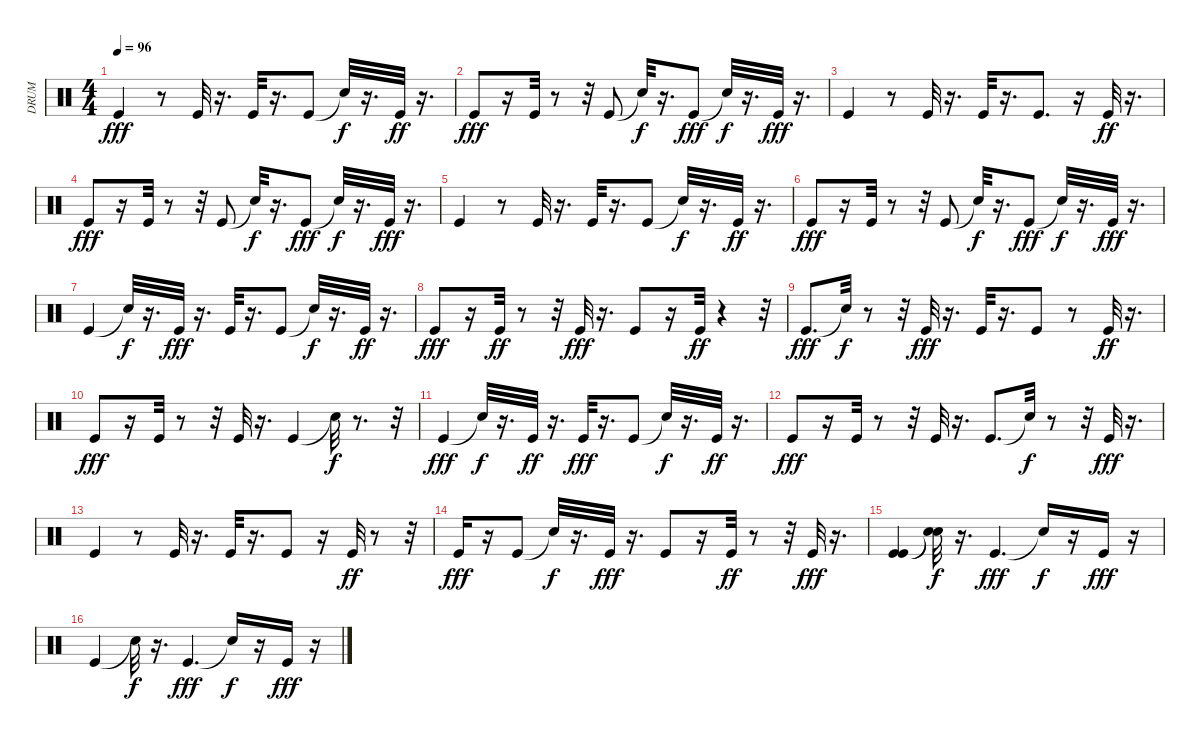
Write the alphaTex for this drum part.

\track ("DRUM" "DRUM") {instrument percussion}
\staff {score}
\articulation defaults
\ts (4 4)
\tempo 96
\clef neutral
\ks c "Kick (hit)".4{dy fff}
r.8 "Kick (hit)".32 r.16{d} "Kick (hit)".32 r.16{d} "Kick (hit)".8 "Snare (hit)"{t}.32{dy f} r.16{d} "Kick (hit)".32{dy ff} r.16{d} |
"Kick (hit)".8{dy fff} r.16 "Kick (hit)".32 r.8 r.32 "Kick (hit)".8 "Snare (hit)"{t}.32{dy f} r.16{d} "Kick (hit)".8{dy fff} "Snare (hit)"{t}.32{dy f} r.16{d} "Kick (hit)".32{dy fff} r.16{d} |
"Kick (hit)".4 r.8 "Kick (hit)".32 r.16{d} "Kick (hit)".32 r.16{d} "Kick (hit)".8{d} r.16 "Kick (hit)".32{dy ff} r.16{d} |
"Kick (hit)".8{dy fff} r.16 "Kick (hit)".32 r.8 r.32 "Kick (hit)".8 "Snare (hit)"{t}.32{dy f} r.16{d} "Kick (hit)".8{dy fff} "Snare (hit)"{t}.32{dy f} r.16{d} "Kick (hit)".32{dy fff} r.16{d} |
"Kick (hit)".4 r.8 "Kick (hit)".32 r.16{d} "Kick (hit)".32 r.16{d} "Kick (hit)".8 "Snare (hit)"{t}.32{dy f} r.16{d} "Kick (hit)".32{dy ff} r.16{d} |
"Kick (hit)".8{dy fff} r.16 "Kick (hit)".32 r.8 r.32 "Kick (hit)".8 "Snare (hit)"{t}.32{dy f} r.16{d} "Kick (hit)".8{dy fff} "Snare (hit)"{t}.32{dy f} r.16{d} "Kick (hit)".32{dy fff} r.16{d} |
"Kick (hit)".4 "Snare (hit)"{t}.32{dy f} r.16{d} "Kick (hit)".32{dy fff} r.16{d} "Kick (hit)".32 r.16{d} "Kick (hit)".8 "Snare (hit)"{t}.32{dy f} r.16{d} "Kick (hit)".32{dy ff} r.16{d} |
"Kick (hit)".8{dy fff} r.16 "Kick (hit)".32{dy ff} r.8 r.32 "Kick (hit)".32{dy fff} r.16{d} "Kick (hit)".8 r.16 "Kick (hit)".32{dy ff} r.4 r.32 |
"Kick (hit)".8{d dy fff} "Snare (hit)"{t}.32{dy f} r.8 r.32 "Kick (hit)".32{dy fff} r.16{d} "Kick (hit)".32 r.16{d} "Kick (hit)".8 r.8 "Kick (hit)".32{dy ff} r.16{d} |
"Kick (hit)".8{dy fff} r.16 "Kick (hit)".32 r.8 r.32 "Kick (hit)".32 r.16{d} "Kick (hit)".4 "Snare (hit)"{t}.32{dy f} r.8{d} r.32 |
"Kick (hit)".4{dy fff} "Snare (hit)"{t}.32{dy f} r.16{d} "Kick (hit)".32{dy ff} r.16{d} "Kick (hit)".32{dy fff} r.16{d} "Kick (hit)".8 "Snare (hit)"{t}.32{dy f} r.16{d} "Kick (hit)".32{dy ff} r.16{d} |
"Kick (hit)".8{dy fff} r.16 "Kick (hit)".32 r.8 r.32 "Kick (hit)".32 r.16{d} "Kick (hit)".8{d} "Snare (hit)"{t}.32{dy f} r.8 r.32 "Kick (hit)".32{dy fff} r.16{d} |
"Kick (hit)".4 r.8 "Kick (hit)".32 r.16{d} "Kick (hit)".32 r.16{d} "Kick (hit)".8 r.16 "Kick (hit)".32{dy ff} r.8 r.32 |
"Kick (hit)".16{dy fff} r.16 "Kick (hit)".8 "Snare (hit)"{t}.32{dy f} r.16{d} "Kick (hit)".32{dy fff} r.16{d} "Kick (hit)".8 r.16 "Kick (hit)".32{dy ff} r.8 r.32 "Kick (hit)".32{dy fff} r.16{d} |
("Kick (hit)" "Kick (hit)").4 ("Snare (hit)"{t} "Snare (hit)"{t}).32{dy f} r.16{d} "Kick (hit)".4{d dy fff} "Snare (hit)"{t}.16{dy f} r.16 "Kick (hit)".16{dy fff} r.16 |
"Kick (hit)".4 "Snare (hit)"{t}.32{dy f} r.16{d} "Kick (hit)".4{d dy fff} "Snare (hit)"{t}.16{dy f} r.16 "Kick (hit)".16{dy fff} r.16
